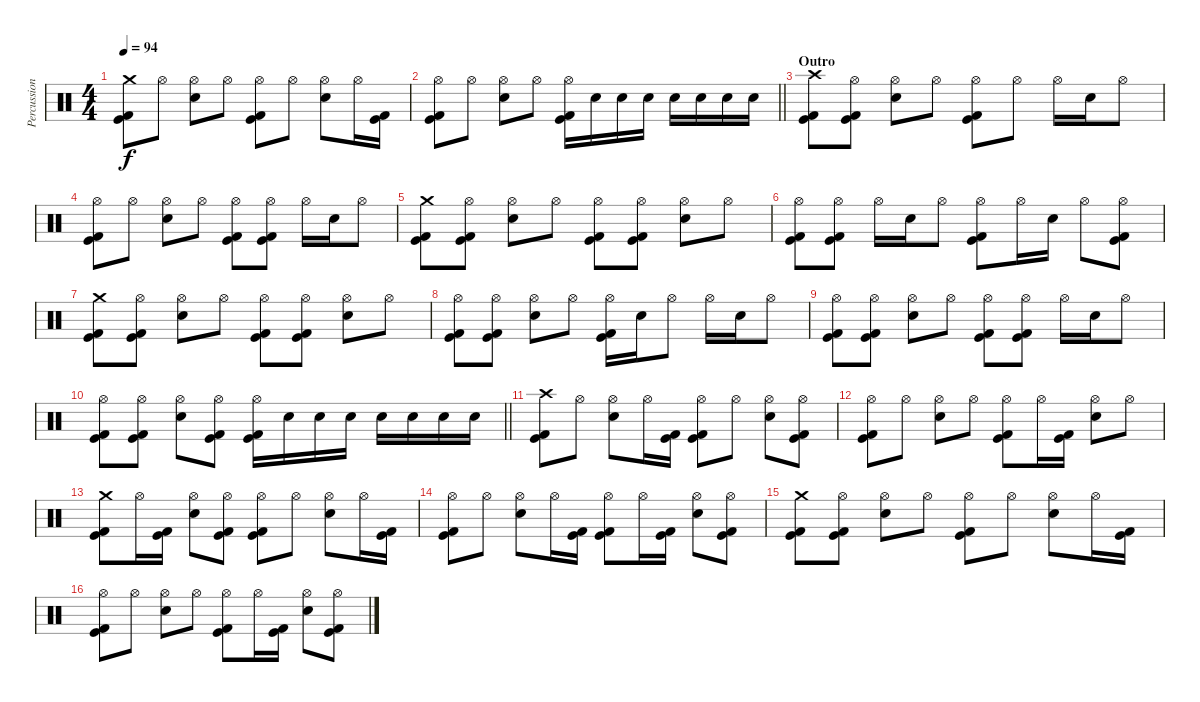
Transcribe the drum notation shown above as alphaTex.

\track ("Percussion" "Percussion") {instrument percussion}
\staff {score}
\articulation defaults
\ts (4 4)
\tempo 94
\clef neutral
\ks c
("Crash medium (hit)" "Kick (hit)" "Kick (hit) 2").8{dy f} "Hi-Hat (open)".8 ("Hi-Hat (open)" "Electric Snare (hit)").8 "Hi-Hat (open)".8 ("Hi-Hat (open)" "Kick (hit)" "Kick (hit) 2").8 "Hi-Hat (open)".8 ("Hi-Hat (open)" "Electric Snare (hit)").8 "Hi-Hat (open)".16 ("Kick (hit)" "Kick (hit) 2").16 |
\barLineRight lightlight
("Hi-Hat (open)" "Kick (hit)" "Kick (hit) 2").8 "Hi-Hat (open)".8 ("Hi-Hat (open)" "Electric Snare (hit)").8 "Hi-Hat (open)".8 ("Hi-Hat (open)" "Kick (hit)" "Kick (hit) 2").16 "Electric Snare (hit)".16 "Electric Snare (hit)".16 "Electric Snare (hit)".16 "Electric Snare (hit)".16 "Electric Snare (hit)".16 "Electric Snare (hit)".16 "Electric Snare (hit)".16 |
\section ("" "Outro")
("Crash high (hit)" "Kick (hit)" "Kick (hit) 2").8 ("Hi-Hat (open)" "Kick (hit)" "Kick (hit) 2").8 ("Hi-Hat (open)" "Electric Snare (hit)").8 "Hi-Hat (open)".8 ("Hi-Hat (open)" "Kick (hit)" "Kick (hit) 2").8 "Hi-Hat (open)".8 "Hi-Hat (open)".16 "Electric Snare (hit)".16 "Hi-Hat (open)".8 |
("Hi-Hat (open)" "Kick (hit)" "Kick (hit) 2").8 "Hi-Hat (open)".8 ("Hi-Hat (open)" "Electric Snare (hit)").8 "Hi-Hat (open)".8 ("Hi-Hat (open)" "Kick (hit)" "Kick (hit) 2").8 ("Hi-Hat (open)" "Kick (hit)" "Kick (hit) 2").8 "Hi-Hat (open)".16 "Electric Snare (hit)".16 "Hi-Hat (open)".8 |
("Crash medium (hit)" "Kick (hit)" "Kick (hit) 2").8 ("Hi-Hat (open)" "Kick (hit)" "Kick (hit) 2").8 ("Hi-Hat (open)" "Electric Snare (hit)").8 "Hi-Hat (open)".8 ("Hi-Hat (open)" "Kick (hit)" "Kick (hit) 2").8 ("Hi-Hat (open)" "Kick (hit)" "Kick (hit) 2").8 ("Hi-Hat (open)" "Electric Snare (hit)").8 "Hi-Hat (open)".8 |
("Hi-Hat (open)" "Kick (hit)" "Kick (hit) 2").8 ("Hi-Hat (open)" "Kick (hit)" "Kick (hit) 2").8 "Hi-Hat (open)".16 "Electric Snare (hit)".16 "Hi-Hat (open)".8 ("Hi-Hat (open)" "Kick (hit)" "Kick (hit) 2").8 "Hi-Hat (open)".16 "Electric Snare (hit)".16 "Hi-Hat (open)".8 ("Hi-Hat (open)" "Kick (hit)" "Kick (hit) 2").8 |
("Crash medium (hit)" "Kick (hit)" "Kick (hit) 2").8 ("Hi-Hat (open)" "Kick (hit)" "Kick (hit) 2").8 ("Hi-Hat (open)" "Electric Snare (hit)").8 "Hi-Hat (open)".8 ("Hi-Hat (open)" "Kick (hit)" "Kick (hit) 2").8 ("Hi-Hat (open)" "Kick (hit)" "Kick (hit) 2").8 ("Hi-Hat (open)" "Electric Snare (hit)").8 "Hi-Hat (open)".8 |
("Hi-Hat (open)" "Kick (hit)" "Kick (hit) 2").8 ("Hi-Hat (open)" "Kick (hit)" "Kick (hit) 2").8 ("Hi-Hat (open)" "Electric Snare (hit)").8 "Hi-Hat (open)".8 ("Hi-Hat (open)" "Kick (hit)" "Kick (hit) 2").16 "Electric Snare (hit)".16 "Hi-Hat (open)".8 "Hi-Hat (open)".16 "Electric Snare (hit)".16 "Hi-Hat (open)".8 |
("Hi-Hat (open)" "Kick (hit)" "Kick (hit) 2").8 ("Hi-Hat (open)" "Kick (hit)" "Kick (hit) 2").8 ("Hi-Hat (open)" "Electric Snare (hit)").8 "Hi-Hat (open)".8 ("Hi-Hat (open)" "Kick (hit)" "Kick (hit) 2").8 ("Hi-Hat (open)" "Kick (hit)" "Kick (hit) 2").8 "Hi-Hat (open)".16 "Electric Snare (hit)".16 "Hi-Hat (open)".8 |
\barLineRight lightlight
("Hi-Hat (open)" "Kick (hit)" "Kick (hit) 2").8 ("Hi-Hat (open)" "Kick (hit)" "Kick (hit) 2").8 ("Hi-Hat (open)" "Electric Snare (hit)").8 ("Hi-Hat (open)" "Kick (hit)" "Kick (hit) 2").8 ("Hi-Hat (open)" "Kick (hit)" "Kick (hit) 2").16 "Electric Snare (hit)".16 "Electric Snare (hit)".16 "Electric Snare (hit)".16 "Electric Snare (hit)".16 "Electric Snare (hit)".16 "Electric Snare (hit)".16 "Electric Snare (hit)".16 |
\section ("" "")
("Crash high (hit)" "Kick (hit)" "Kick (hit) 2").8 "Hi-Hat (open)".8 ("Hi-Hat (open)" "Electric Snare (hit)").8 "Hi-Hat (open)".16 ("Kick (hit)" "Kick (hit) 2").16 ("Hi-Hat (open)" "Kick (hit)" "Kick (hit) 2").8 "Hi-Hat (open)".8 ("Hi-Hat (open)" "Electric Snare (hit)").8 ("Hi-Hat (open)" "Kick (hit)" "Kick (hit) 2").8 |
("Hi-Hat (open)" "Kick (hit)" "Kick (hit) 2").8 "Hi-Hat (open)".8 ("Hi-Hat (open)" "Electric Snare (hit)").8 "Hi-Hat (open)".8 ("Hi-Hat (open)" "Kick (hit)" "Kick (hit) 2").8 "Hi-Hat (open)".16 ("Kick (hit)" "Kick (hit) 2").16 ("Hi-Hat (open)" "Electric Snare (hit)").8 "Hi-Hat (open)".8 |
("Crash medium (hit)" "Kick (hit)" "Kick (hit) 2").8 "Hi-Hat (open)".16 ("Kick (hit)" "Kick (hit) 2").16 ("Hi-Hat (open)" "Electric Snare (hit)").8 ("Hi-Hat (open)" "Kick (hit)" "Kick (hit) 2").8 ("Hi-Hat (open)" "Kick (hit)" "Kick (hit) 2").8 "Hi-Hat (open)".8 ("Hi-Hat (open)" "Electric Snare (hit)").8 "Hi-Hat (open)".16 ("Kick (hit)" "Kick (hit) 2").16 |
("Hi-Hat (open)" "Kick (hit)" "Kick (hit) 2").8 "Hi-Hat (open)".8 ("Hi-Hat (open)" "Electric Snare (hit)").8 "Hi-Hat (open)".16 ("Kick (hit)" "Kick (hit) 2").16 ("Hi-Hat (open)" "Kick (hit)" "Kick (hit) 2").8 "Hi-Hat (open)".16 ("Kick (hit)" "Kick (hit) 2").16 ("Hi-Hat (open)" "Electric Snare (hit)").8 ("Hi-Hat (open)" "Kick (hit)" "Kick (hit) 2").8 |
("Crash medium (hit)" "Kick (hit)" "Kick (hit) 2").8 ("Hi-Hat (open)" "Kick (hit)" "Kick (hit) 2").8 ("Hi-Hat (open)" "Electric Snare (hit)").8 "Hi-Hat (open)".8 ("Hi-Hat (open)" "Kick (hit)" "Kick (hit) 2").8 "Hi-Hat (open)".8 ("Hi-Hat (open)" "Electric Snare (hit)").8 "Hi-Hat (open)".16 ("Kick (hit)" "Kick (hit) 2").16 |
("Hi-Hat (open)" "Kick (hit)" "Kick (hit) 2").8 "Hi-Hat (open)".8 ("Hi-Hat (open)" "Electric Snare (hit)").8 "Hi-Hat (open)".8 ("Hi-Hat (open)" "Kick (hit)" "Kick (hit) 2").8 "Hi-Hat (open)".16 ("Kick (hit)" "Kick (hit) 2").16 ("Hi-Hat (open)" "Electric Snare (hit)").8 ("Hi-Hat (open)" "Kick (hit)" "Kick (hit) 2").8
